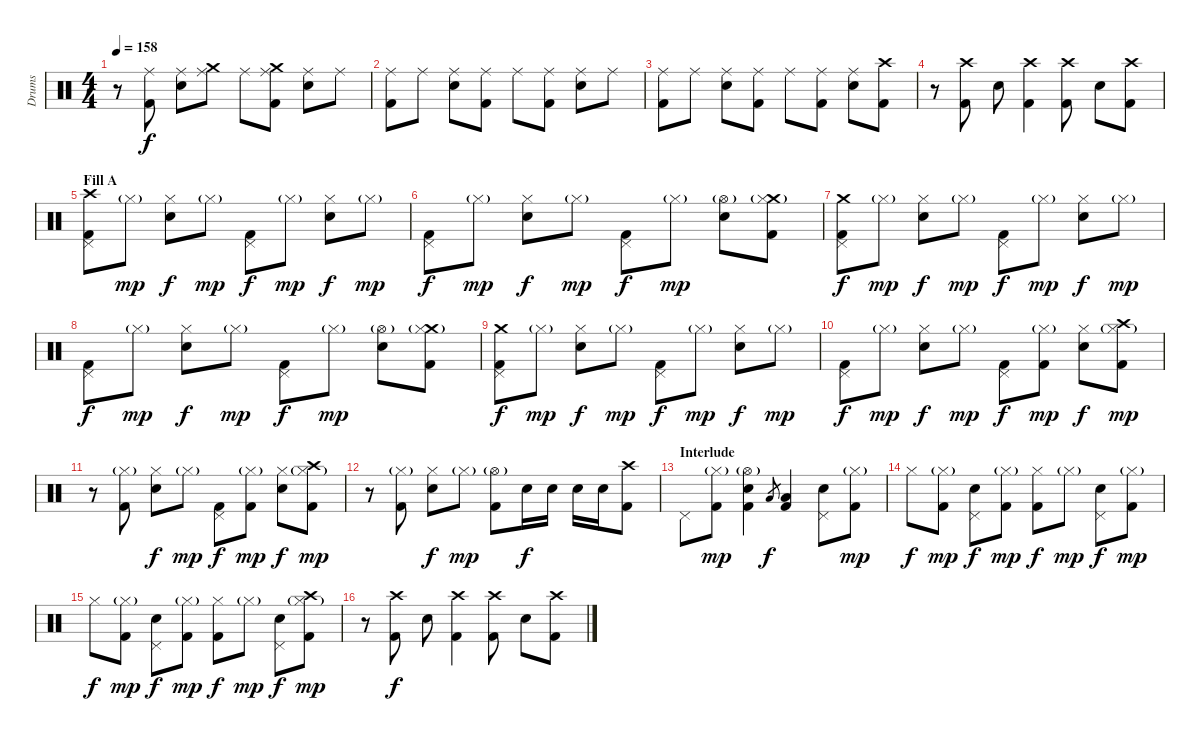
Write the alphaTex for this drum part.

\track ("Drums" "Drums") {instrument percussion}
\staff {score}
\articulation defaults
\ts (4 4)
\tempo 158
\clef neutral
\ks c
r.8{dy f} ("Ride (middle)" "Kick (hit) 2").8 ("Ride (middle)" "Snare (hit) 2").8 ("Crash medium (hit)" "Ride (middle)").8 "Ride (middle)".8 ("Crash medium (hit)" "Ride (middle)" "Kick (hit) 2").8 ("Ride (middle)" "Snare (hit) 2").8 "Ride (middle)".8 |
("Ride (middle)" "Kick (hit) 2").8 "Ride (middle)".8 ("Ride (middle)" "Snare (hit) 2").8 ("Ride (middle)" "Kick (hit) 2").8 "Ride (middle)".8 ("Ride (middle)" "Kick (hit) 2").8 ("Ride (middle)" "Snare (hit) 2").8 "Ride (middle)".8 |
("Ride (middle)" "Kick (hit) 2").8 "Ride (middle)".8 ("Ride (middle)" "Snare (hit) 2").8 ("Ride (middle)" "Kick (hit) 2").8 "Ride (middle)".8 ("Ride (middle)" "Kick (hit) 2").8 ("Ride (middle)" "Snare (hit) 2").8 ("Crash high (hit)" "Kick (hit) 2").8 |
r.8 ("Crash high (hit)" "Kick (hit) 2").8 "Snare (hit) 2".8 ("Crash high (hit)" "Kick (hit) 2").4 ("Crash high (hit)" "Kick (hit) 2").8 "Snare (hit) 2".8 ("Crash high (hit)" "Kick (hit) 2").8 |
\section ("" "Fill A")
("Crash high (hit)" "Pedal Hi-Hat (hit)" "Kick (hit) 2").8 "Hi-Hat (closed)"{g}.8{dy mp} ("Hi-Hat (closed)" "Snare (hit) 2").8{dy f} "Hi-Hat (closed)"{g}.8{dy mp} ("Pedal Hi-Hat (hit)" "Kick (hit) 2").8{dy f} "Hi-Hat (closed)"{g}.8{dy mp} ("Hi-Hat (closed)" "Snare (hit) 2").8{dy f} "Hi-Hat (closed)"{g}.8{dy mp} |
("Pedal Hi-Hat (hit)" "Kick (hit) 2").8{dy f} "Hi-Hat (closed)"{g}.8{dy mp} ("Hi-Hat (closed)" "Snare (hit) 2").8{dy f} "Hi-Hat (closed)"{g}.8{dy mp} ("Pedal Hi-Hat (hit)" "Kick (hit) 2").8{dy f} "Hi-Hat (closed)"{g}.8{dy mp} ("Hi-Hat (open)"{g} "Snare (hit) 2").8 ("Crash medium (hit)" "Hi-Hat (closed)"{g} "Kick (hit) 2").8 |
("Crash medium (hit)" "Pedal Hi-Hat (hit)" "Kick (hit) 2").8{dy f} "Hi-Hat (closed)"{g}.8{dy mp} ("Hi-Hat (closed)" "Snare (hit) 2").8{dy f} "Hi-Hat (closed)"{g}.8{dy mp} ("Pedal Hi-Hat (hit)" "Kick (hit) 2").8{dy f} "Hi-Hat (closed)"{g}.8{dy mp} ("Hi-Hat (closed)" "Snare (hit) 2").8{dy f} "Hi-Hat (closed)"{g}.8{dy mp} |
("Pedal Hi-Hat (hit)" "Kick (hit) 2").8{dy f} "Hi-Hat (closed)"{g}.8{dy mp} ("Hi-Hat (closed)" "Snare (hit) 2").8{dy f} "Hi-Hat (closed)"{g}.8{dy mp} ("Pedal Hi-Hat (hit)" "Kick (hit) 2").8{dy f} "Hi-Hat (closed)"{g}.8{dy mp} ("Hi-Hat (open)"{g} "Snare (hit) 2").8 ("Crash medium (hit)" "Hi-Hat (closed)"{g} "Kick (hit) 2").8 |
("Crash medium (hit)" "Pedal Hi-Hat (hit)" "Kick (hit) 2").8{dy f} "Hi-Hat (closed)"{g}.8{dy mp} ("Hi-Hat (closed)" "Snare (hit) 2").8{dy f} "Hi-Hat (closed)"{g}.8{dy mp} ("Pedal Hi-Hat (hit)" "Kick (hit) 2").8{dy f} "Hi-Hat (closed)"{g}.8{dy mp} ("Hi-Hat (closed)" "Snare (hit) 2").8{dy f} "Hi-Hat (closed)"{g}.8{dy mp} |
("Pedal Hi-Hat (hit)" "Kick (hit) 2").8{dy f} "Hi-Hat (closed)"{g}.8{dy mp} ("Hi-Hat (closed)" "Snare (hit) 2").8{dy f} "Hi-Hat (closed)"{g}.8{dy mp} ("Pedal Hi-Hat (hit)" "Kick (hit) 2").8{dy f} ("Hi-Hat (closed)"{g} "Kick (hit) 2").8{dy mp} ("Hi-Hat (closed)" "Snare (hit) 2").8{dy f} ("Crash high (hit)" "Hi-Hat (closed)"{g} "Kick (hit) 2").8{dy mp} |
r.8 ("Hi-Hat (closed)"{g} "Kick (hit) 2").8 ("Hi-Hat (closed)" "Snare (hit) 2").8{dy f} "Hi-Hat (closed)"{g}.8{dy mp} ("Pedal Hi-Hat (hit)" "Kick (hit) 2").8{dy f} ("Hi-Hat (closed)"{g} "Kick (hit) 2").8{dy mp} ("Hi-Hat (closed)" "Snare (hit) 2").8{dy f} ("Crash high (hit)" "Hi-Hat (closed)"{g} "Kick (hit) 2").8{dy mp} |
r.8 ("Hi-Hat (closed)"{g} "Kick (hit) 2").8 ("Hi-Hat (closed)" "Snare (hit) 2").8{dy f} "Hi-Hat (closed)"{g}.8{dy mp} ("Hi-Hat (open)"{g} "Kick (hit) 2").8 "Snare (hit) 2".16{dy f} "Snare (hit) 2".16 "Snare (hit) 2".16 "Snare (hit) 2".16 ("Crash high (hit)" "Kick (hit) 2").8 |
\section ("" "Interlude")
"Pedal Hi-Hat (hit)".8 ("Hi-Hat (closed)"{g} "Kick (hit) 2").8{dy mp} ("Hi-Hat (open)"{g} "Snare (hit) 2" "Kick (hit) 2").4 "Low Tom (hit)".8{gr dy f} ("Low Tom (hit)" "Kick (hit) 2").4 ("Pedal Hi-Hat (hit)" "Snare (hit) 2").8 ("Hi-Hat (closed)"{g} "Kick (hit) 2").8{dy mp} |
"Hi-Hat (closed)".8{dy f} ("Hi-Hat (closed)"{g} "Kick (hit) 2").8{dy mp} ("Pedal Hi-Hat (hit)" "Snare (hit) 2").8{dy f} ("Hi-Hat (closed)"{g} "Kick (hit) 2").8{dy mp} ("Hi-Hat (closed)" "Kick (hit) 2").8{dy f} "Hi-Hat (closed)"{g}.8{dy mp} ("Pedal Hi-Hat (hit)" "Snare (hit) 2").8{dy f} ("Hi-Hat (closed)"{g} "Kick (hit) 2").8{dy mp} |
"Hi-Hat (closed)".8{dy f} ("Hi-Hat (closed)"{g} "Kick (hit) 2").8{dy mp} ("Pedal Hi-Hat (hit)" "Snare (hit) 2").8{dy f} ("Hi-Hat (closed)"{g} "Kick (hit) 2").8{dy mp} ("Hi-Hat (closed)" "Kick (hit) 2").8{dy f} "Hi-Hat (closed)"{g}.8{dy mp} ("Pedal Hi-Hat (hit)" "Snare (hit) 2").8{dy f} ("Crash high (hit)" "Hi-Hat (closed)"{g} "Kick (hit) 2").8{dy mp} |
r.8 ("Crash high (hit)" "Kick (hit) 2").8{dy f} "Snare (hit) 2".8 ("Crash high (hit)" "Kick (hit) 2").4 ("Crash high (hit)" "Kick (hit) 2").8 "Snare (hit) 2".8 ("Crash high (hit)" "Kick (hit) 2").8
